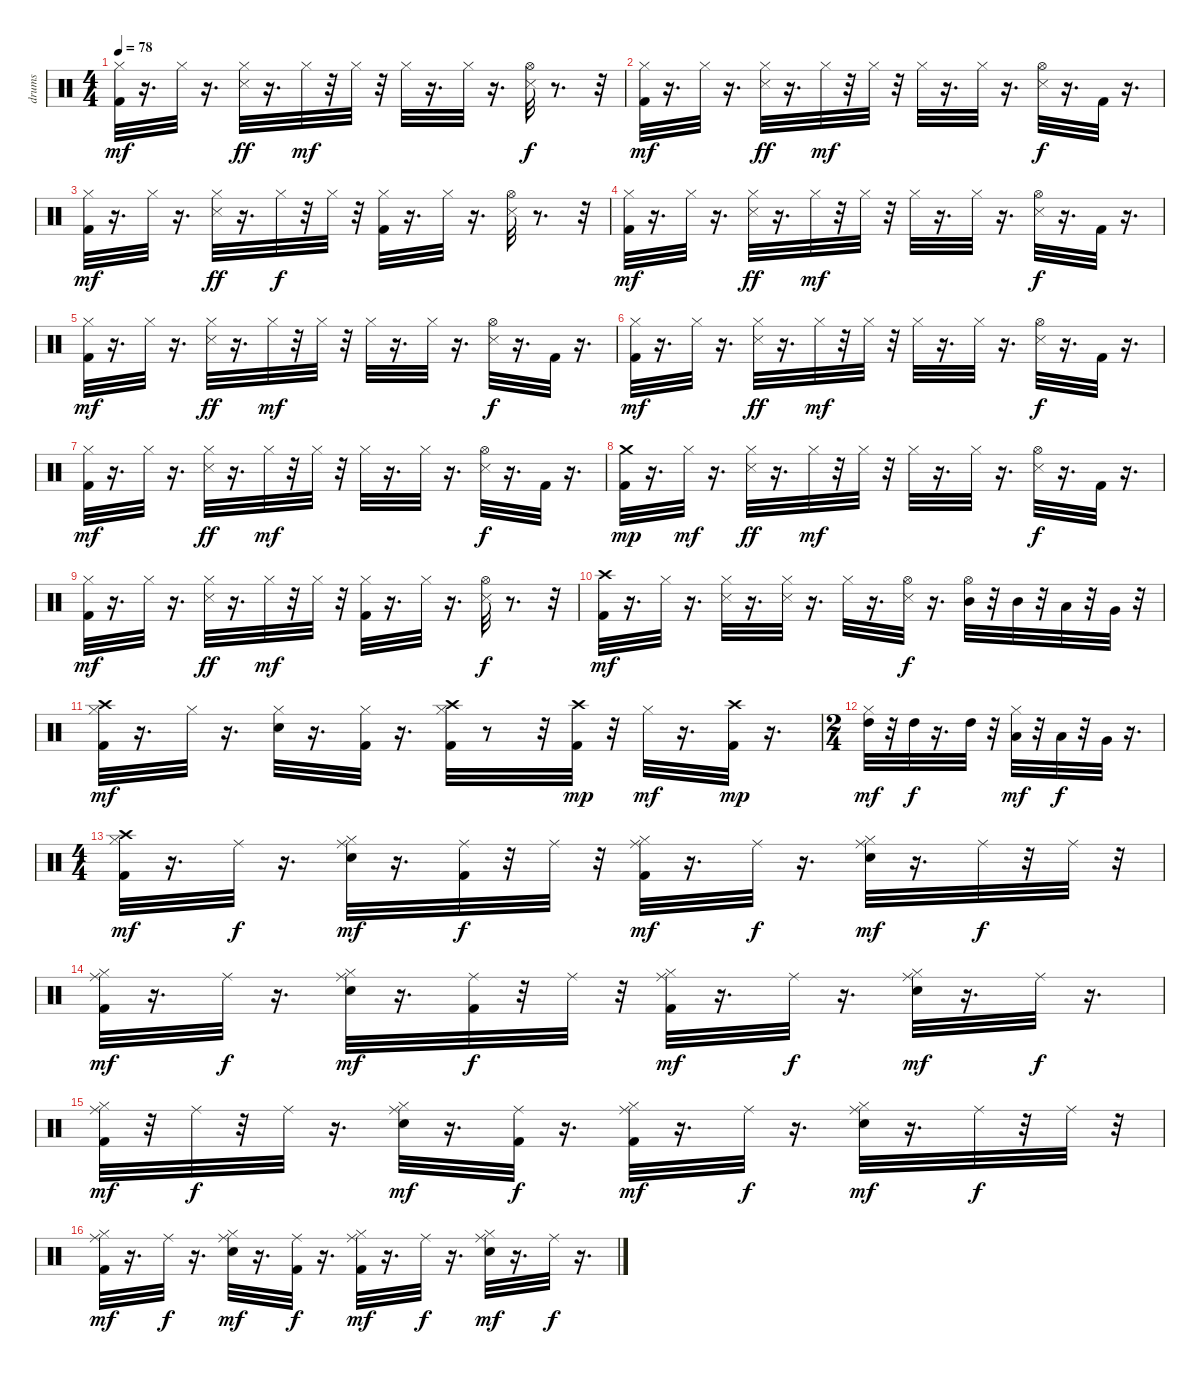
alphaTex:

\track ("drums" "drums") {instrument percussion}
\staff {score}
\articulation defaults
\ts (4 4)
\tempo 78
\clef neutral
\ks c
("Hi-Hat (closed)" "Kick (hit) 2").32{dy mf} r.16{d} "Hi-Hat (closed)".32 r.16{d} ("Snare (side stick) 3" "Hi-Hat (closed)").32{dy ff} r.16{d} "Hi-Hat (closed)".32{dy mf} r.32 "Hi-Hat (closed)".32 r.32 "Hi-Hat (closed)".32 r.16{d} "Hi-Hat (closed)".32 r.16{d} ("Hi-Hat (open)" "Snare (side stick) 3").32{dy f} r.8{d} r.32 |
("Hi-Hat (closed)" "Kick (hit) 2").32{dy mf} r.16{d} "Hi-Hat (closed)".32 r.16{d} ("Hi-Hat (closed)" "Snare (side stick) 3").32{dy ff} r.16{d} "Hi-Hat (closed)".32{dy mf} r.32 "Hi-Hat (closed)".32 r.32 "Hi-Hat (closed)".32 r.16{d} "Hi-Hat (closed)".32 r.16{d} ("Hi-Hat (open)" "Snare (side stick) 3").32{dy f} r.16{d} "Kick (hit) 2".32 r.16{d} |
("Kick (hit) 2" "Hi-Hat (closed)").32{dy mf} r.16{d} "Hi-Hat (closed)".32 r.16{d} ("Snare (side stick) 3" "Hi-Hat (closed)").32{dy ff} r.16{d} "Hi-Hat (closed)".32{dy f} r.32 "Hi-Hat (closed)".32 r.32 ("Kick (hit) 2" "Hi-Hat (closed)").32 r.16{d} "Hi-Hat (closed)".32 r.16{d} ("Hi-Hat (open)" "Snare (side stick) 3").32 r.8{d} r.32 |
("Kick (hit) 2" "Hi-Hat (closed)").32{dy mf} r.16{d} "Hi-Hat (closed)".32 r.16{d} ("Hi-Hat (closed)" "Snare (side stick) 3").32{dy ff} r.16{d} "Hi-Hat (closed)".32{dy mf} r.32 "Hi-Hat (closed)".32 r.32 "Hi-Hat (closed)".32 r.16{d} "Hi-Hat (closed)".32 r.16{d} ("Hi-Hat (open)" "Snare (side stick) 3").32{dy f} r.16{d} "Kick (hit) 2".32 r.16{d} |
("Hi-Hat (closed)" "Kick (hit) 2").32{dy mf} r.16{d} "Hi-Hat (closed)".32 r.16{d} ("Hi-Hat (closed)" "Snare (side stick) 3").32{dy ff} r.16{d} "Hi-Hat (closed)".32{dy mf} r.32 "Hi-Hat (closed)".32 r.32 "Hi-Hat (closed)".32 r.16{d} "Hi-Hat (closed)".32 r.16{d} ("Snare (side stick) 3" "Hi-Hat (open)").32{dy f} r.16{d} "Kick (hit) 2".32 r.16{d} |
("Kick (hit) 2" "Hi-Hat (closed)").32{dy mf} r.16{d} "Hi-Hat (closed)".32 r.16{d} ("Snare (side stick) 3" "Hi-Hat (closed)").32{dy ff} r.16{d} "Hi-Hat (closed)".32{dy mf} r.32 "Hi-Hat (closed)".32 r.32 "Hi-Hat (closed)".32 r.16{d} "Hi-Hat (closed)".32 r.16{d} ("Snare (side stick) 3" "Hi-Hat (open)").32{dy f} r.16{d} "Kick (hit) 2".32 r.16{d} |
("Kick (hit) 2" "Hi-Hat (closed)").32{dy mf} r.16{d} "Hi-Hat (closed)".32 r.16{d} ("Hi-Hat (closed)" "Snare (side stick) 3").32{dy ff} r.16{d} "Hi-Hat (closed)".32{dy mf} r.32 "Hi-Hat (closed)".32 r.32 "Hi-Hat (closed)".32 r.16{d} "Hi-Hat (closed)".32 r.16{d} ("Snare (side stick) 3" "Hi-Hat (open)").32{dy f} r.16{d} "Kick (hit) 2".32 r.16{d} |
("Kick (hit) 2" "Crash medium (hit)").32{dy mp} r.16{d} "Hi-Hat (closed)".32{dy mf} r.16{d} ("Snare (side stick) 3" "Hi-Hat (closed)").32{dy ff} r.16{d} "Hi-Hat (closed)".32{dy mf} r.32 "Hi-Hat (closed)".32 r.32 "Hi-Hat (closed)".32 r.16{d} "Hi-Hat (closed)".32 r.16{d} ("Snare (side stick) 3" "Hi-Hat (open)").32{dy f} r.16{d} "Kick (hit) 2".32 r.16{d} |
("Kick (hit) 2" "Hi-Hat (closed)").32{dy mf} r.16{d} "Hi-Hat (closed)".32 r.16{d} ("Snare (side stick) 3" "Hi-Hat (closed)").32{dy ff} r.16{d} "Hi-Hat (closed)".32{dy mf} r.32 "Hi-Hat (closed)".32 r.32 ("Hi-Hat (closed)" "Kick (hit) 2").32 r.16{d} "Hi-Hat (closed)".32 r.16{d} ("Snare (side stick) 3" "Hi-Hat (open)").32{dy f} r.8{d} r.32 |
("Crash high (hit)" "Kick (hit) 2").32{dy mf} r.16{d} "Hi-Hat (closed)".32 r.16{d} ("Snare (side stick) 3" "Hi-Hat (closed)").32 r.16{d} ("Snare (side stick) 3" "Hi-Hat (closed)").32 r.16{d} "Hi-Hat (closed)".32 r.16{d} ("Snare (side stick) 3" "Hi-Hat (open)").32{dy f} r.16{d} ("Mid Tom (hit)" "Hi-Hat (open)").32 r.32 "Mid Tom (hit)".32 r.32 "Low Tom (hit)".32 r.32 "Very Low Tom (hit)".32 r.32 |
("Hi-Hat (closed)" "Crash high (hit)" "Kick (hit) 2").32{dy mf} r.16{d} "Hi-Hat (closed)".32 r.16{d} ("Electric Snare (hit)" "Hi-Hat (closed)").32 r.16{d} ("Kick (hit) 2" "Hi-Hat (closed)").32 r.16{d} ("Crash high (hit)" "Kick (hit) 2" "Hi-Hat (closed)").32 r.8 r.32 ("Crash high (hit)" "Kick (hit) 2").32{dy mp} r.32 "Hi-Hat (closed)".32{dy mf} r.16{d} ("Crash high (hit)" "Kick (hit) 2").32{dy mp} r.16{d} |
\ts (2 4)
("Hi-Hat (closed)" "High Tom (hit)").32{dy mf} r.32 "High Tom (hit)".32{dy f} r.16{d} "High Tom (hit)".32 r.32 ("Hi-Hat (closed)" "Low Tom (hit)").32{dy mf} r.32 "Low Tom (hit)".32{dy f} r.32 "Very Low Tom (hit)".32 r.16{d} |
\ts (4 4)
("Hi-Hat (closed)" "Kick (hit) 2" "Crash high (hit)").32{dy mf} r.16{d} "Ride (middle)".32{dy f} r.16{d} ("Hi-Hat (closed)" "Ride (middle)" "Electric Snare (hit)").32{dy mf} r.16{d} ("Ride (middle)" "Kick (hit) 2").32{dy f} r.32 "Ride (middle)".32 r.32 ("Hi-Hat (closed)" "Ride (middle)" "Kick (hit) 2").32{dy mf} r.16{d} "Ride (middle)".32{dy f} r.16{d} ("Hi-Hat (closed)" "Ride (middle)" "Electric Snare (hit)").32{dy mf} r.16{d} "Ride (middle)".32{dy f} r.32 "Ride (middle)".32 r.32 |
("Hi-Hat (closed)" "Ride (middle)" "Kick (hit) 2").32{dy mf} r.16{d} "Ride (middle)".32{dy f} r.16{d} ("Hi-Hat (closed)" "Ride (middle)" "Electric Snare (hit)").32{dy mf} r.16{d} ("Ride (middle)" "Kick (hit) 2").32{dy f} r.32 "Ride (middle)".32 r.32 ("Hi-Hat (closed)" "Ride (middle)" "Kick (hit) 2").32{dy mf} r.16{d} "Ride (middle)".32{dy f} r.16{d} ("Hi-Hat (closed)" "Ride (middle)" "Electric Snare (hit)").32{dy mf} r.16{d} "Ride (middle)".32{dy f} r.16{d} |
("Ride (middle)" "Hi-Hat (closed)" "Kick (hit) 2").32{dy mf} r.32 "Ride (middle)".32{dy f} r.32 "Ride (middle)".32 r.16{d} ("Ride (middle)" "Hi-Hat (closed)" "Electric Snare (hit)").32{dy mf} r.16{d} ("Ride (middle)" "Kick (hit) 2").32{dy f} r.16{d} ("Ride (middle)" "Hi-Hat (closed)" "Kick (hit) 2").32{dy mf} r.16{d} "Ride (middle)".32{dy f} r.16{d} ("Ride (middle)" "Hi-Hat (closed)" "Electric Snare (hit)").32{dy mf} r.16{d} "Ride (middle)".32{dy f} r.32 "Ride (middle)".32 r.32 |
("Ride (middle)" "Hi-Hat (closed)" "Kick (hit) 2").32{dy mf} r.16{d} "Ride (middle)".32{dy f} r.16{d} ("Ride (middle)" "Hi-Hat (closed)" "Electric Snare (hit)").32{dy mf} r.16{d} ("Ride (middle)" "Kick (hit) 2").32{dy f} r.16{d} ("Ride (middle)" "Hi-Hat (closed)" "Kick (hit) 2").32{dy mf} r.16{d} "Ride (middle)".32{dy f} r.16{d} ("Ride (middle)" "Hi-Hat (closed)" "Electric Snare (hit)").32{dy mf} r.16{d} "Ride (middle)".32{dy f} r.16{d}
